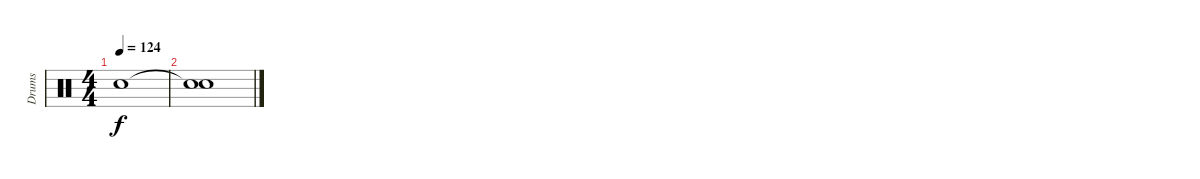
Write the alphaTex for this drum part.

\track ("Drums" "Drums") {instrument percussion}
\staff {score}
\articulation defaults
\ts (4 4)
\tempo 124
\clef neutral
\ks c "Snare (hit)"{t}.1{dy f}
|
("Snare (hit)"{t} "Snare (hit)"{t}).1
